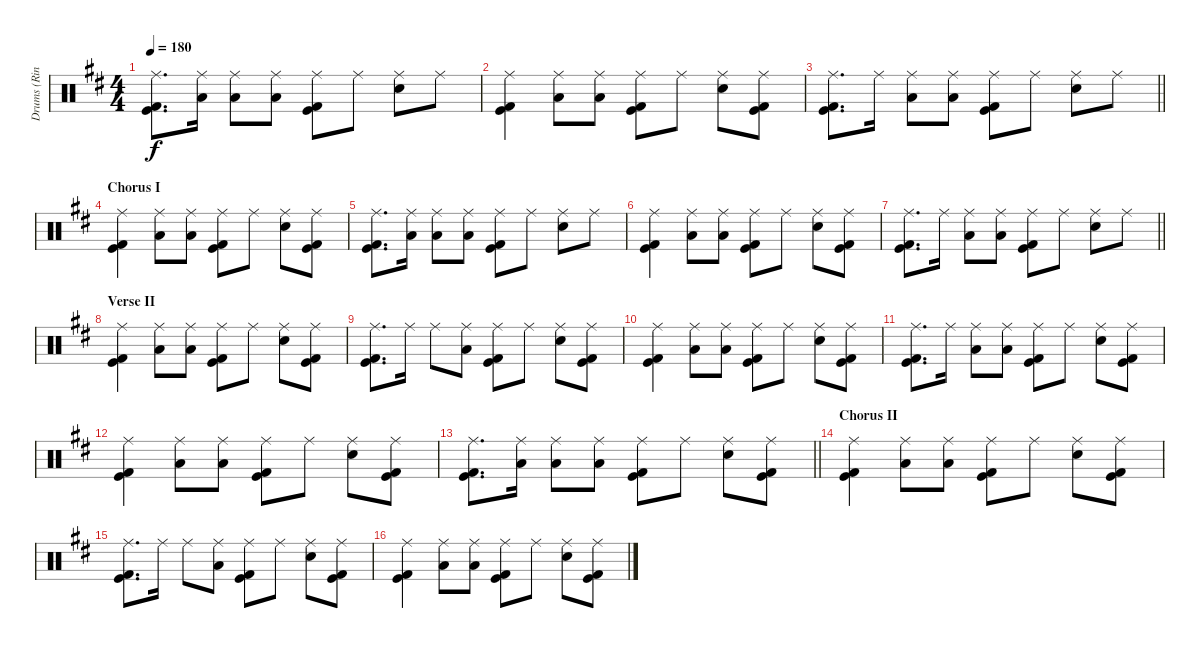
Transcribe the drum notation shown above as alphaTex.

\track ("Drums (Ringo)" "Drums (Rin") {instrument percussion}
\staff {score}
\articulation defaults
\ts (4 4)
\tempo 180
\clef neutral
\ks d
("Ride (middle)" "Kick (hit) 2" "Kick (hit)").8{d dy f} ("Ride (middle)" "Low Tom (hit)").16 ("Ride (middle)" "Low Tom (hit)").8 ("Ride (middle)" "Low Tom (hit)").8 ("Ride (middle)" "Kick (hit) 2" "Kick (hit)").8 "Ride (middle)".8 ("Ride (middle)" "Electric Snare (hit)").8 "Ride (middle)".8 |
("Ride (middle)" "Kick (hit) 2" "Kick (hit)").4 ("Ride (middle)" "Low Tom (hit)").8 ("Ride (middle)" "Low Tom (hit)").8 ("Ride (middle)" "Kick (hit) 2" "Kick (hit)").8 "Ride (middle)".8 ("Ride (middle)" "Electric Snare (hit)").8 ("Ride (middle)" "Kick (hit) 2" "Kick (hit)").8 |
\barLineRight lightlight
("Ride (middle)" "Kick (hit) 2" "Kick (hit)").8{d} "Ride (middle)".16 ("Ride (middle)" "Low Tom (hit)").8 ("Ride (middle)" "Low Tom (hit)").8 ("Ride (middle)" "Kick (hit) 2" "Kick (hit)").8 "Ride (middle)".8 ("Ride (middle)" "Electric Snare (hit)").8 "Ride (middle)".8 |
\section ("" "Chorus I")
("Ride (middle)" "Kick (hit) 2" "Kick (hit)").4 ("Ride (middle)" "Low Tom (hit)").8 ("Ride (middle)" "Low Tom (hit)").8 ("Ride (middle)" "Kick (hit) 2" "Kick (hit)").8 "Ride (middle)".8 ("Ride (middle)" "Electric Snare (hit)").8 ("Ride (middle)" "Kick (hit) 2" "Kick (hit)").8 |
("Ride (middle)" "Kick (hit) 2" "Kick (hit)").8{d} ("Ride (middle)" "Low Tom (hit)").16 ("Ride (middle)" "Low Tom (hit)").8 ("Ride (middle)" "Low Tom (hit)").8 ("Ride (middle)" "Kick (hit) 2" "Kick (hit)").8 "Ride (middle)".8 ("Ride (middle)" "Electric Snare (hit)").8 "Ride (middle)".8 |
("Ride (middle)" "Kick (hit) 2" "Kick (hit)").4 ("Ride (middle)" "Low Tom (hit)").8 ("Ride (middle)" "Low Tom (hit)").8 ("Ride (middle)" "Kick (hit) 2" "Kick (hit)").8 "Ride (middle)".8 ("Ride (middle)" "Electric Snare (hit)").8 ("Ride (middle)" "Kick (hit) 2" "Kick (hit)").8 |
\barLineRight lightlight
("Ride (middle)" "Kick (hit) 2" "Kick (hit)").8{d} "Ride (middle)".16 ("Ride (middle)" "Low Tom (hit)").8 ("Ride (middle)" "Low Tom (hit)").8 ("Ride (middle)" "Kick (hit) 2" "Kick (hit)").8 "Ride (middle)".8 ("Ride (middle)" "Electric Snare (hit)").8 "Ride (middle)".8 |
\section ("" "Verse II")
("Ride (middle)" "Kick (hit) 2" "Kick (hit)").4 ("Ride (middle)" "Low Tom (hit)").8 ("Ride (middle)" "Low Tom (hit)").8 ("Ride (middle)" "Kick (hit) 2" "Kick (hit)").8 "Ride (middle)".8 ("Ride (middle)" "Electric Snare (hit)").8 ("Ride (middle)" "Kick (hit) 2" "Kick (hit)").8 |
("Ride (middle)" "Kick (hit) 2" "Kick (hit)").8{d} "Ride (middle)".16 "Ride (middle)".8 ("Ride (middle)" "Low Tom (hit)").8 ("Ride (middle)" "Kick (hit) 2" "Kick (hit)").8 "Ride (middle)".8 ("Ride (middle)" "Electric Snare (hit)").8 ("Ride (middle)" "Kick (hit) 2" "Kick (hit)").8 |
("Ride (middle)" "Kick (hit) 2" "Kick (hit)").4 ("Ride (middle)" "Low Tom (hit)").8 ("Ride (middle)" "Low Tom (hit)").8 ("Ride (middle)" "Kick (hit) 2" "Kick (hit)").8 "Ride (middle)".8 ("Ride (middle)" "Electric Snare (hit)").8 ("Ride (middle)" "Kick (hit) 2" "Kick (hit)").8 |
("Ride (middle)" "Kick (hit) 2" "Kick (hit)").8{d} "Ride (middle)".16 ("Ride (middle)" "Low Tom (hit)").8 ("Ride (middle)" "Low Tom (hit)").8 ("Ride (middle)" "Kick (hit) 2" "Kick (hit)").8 "Ride (middle)".8 ("Ride (middle)" "Electric Snare (hit)").8 ("Ride (middle)" "Kick (hit) 2" "Kick (hit)").8 |
("Ride (middle)" "Kick (hit) 2" "Kick (hit)").4 ("Ride (middle)" "Low Tom (hit)").8 ("Ride (middle)" "Low Tom (hit)").8 ("Ride (middle)" "Kick (hit) 2" "Kick (hit)").8 "Ride (middle)".8 ("Ride (middle)" "Electric Snare (hit)").8 ("Ride (middle)" "Kick (hit) 2" "Kick (hit)").8 |
\barLineRight lightlight
("Ride (middle)" "Kick (hit) 2" "Kick (hit)").8{d} ("Ride (middle)" "Low Tom (hit)").16 ("Ride (middle)" "Low Tom (hit)").8 ("Ride (middle)" "Low Tom (hit)").8 ("Ride (middle)" "Kick (hit) 2" "Kick (hit)").8 "Ride (middle)".8 ("Ride (middle)" "Electric Snare (hit)").8 ("Ride (middle)" "Kick (hit) 2" "Kick (hit)").8 |
\section ("" "Chorus II")
("Ride (middle)" "Kick (hit) 2" "Kick (hit)").4 ("Ride (middle)" "Low Tom (hit)").8 ("Ride (middle)" "Low Tom (hit)").8 ("Ride (middle)" "Kick (hit) 2" "Kick (hit)").8 "Ride (middle)".8 ("Ride (middle)" "Electric Snare (hit)").8 ("Ride (middle)" "Kick (hit) 2" "Kick (hit)").8 |
("Ride (middle)" "Kick (hit) 2" "Kick (hit)").8{d} "Ride (middle)".16 "Ride (middle)".8 ("Ride (middle)" "Low Tom (hit)").8 ("Ride (middle)" "Kick (hit) 2" "Kick (hit)").8 "Ride (middle)".8 ("Ride (middle)" "Electric Snare (hit)").8 ("Ride (middle)" "Kick (hit) 2" "Kick (hit)").8 |
("Ride (middle)" "Kick (hit) 2" "Kick (hit)").4 ("Ride (middle)" "Low Tom (hit)").8 ("Ride (middle)" "Low Tom (hit)").8 ("Ride (middle)" "Kick (hit) 2" "Kick (hit)").8 "Ride (middle)".8 ("Ride (middle)" "Electric Snare (hit)").8 ("Ride (middle)" "Kick (hit) 2" "Kick (hit)").8
